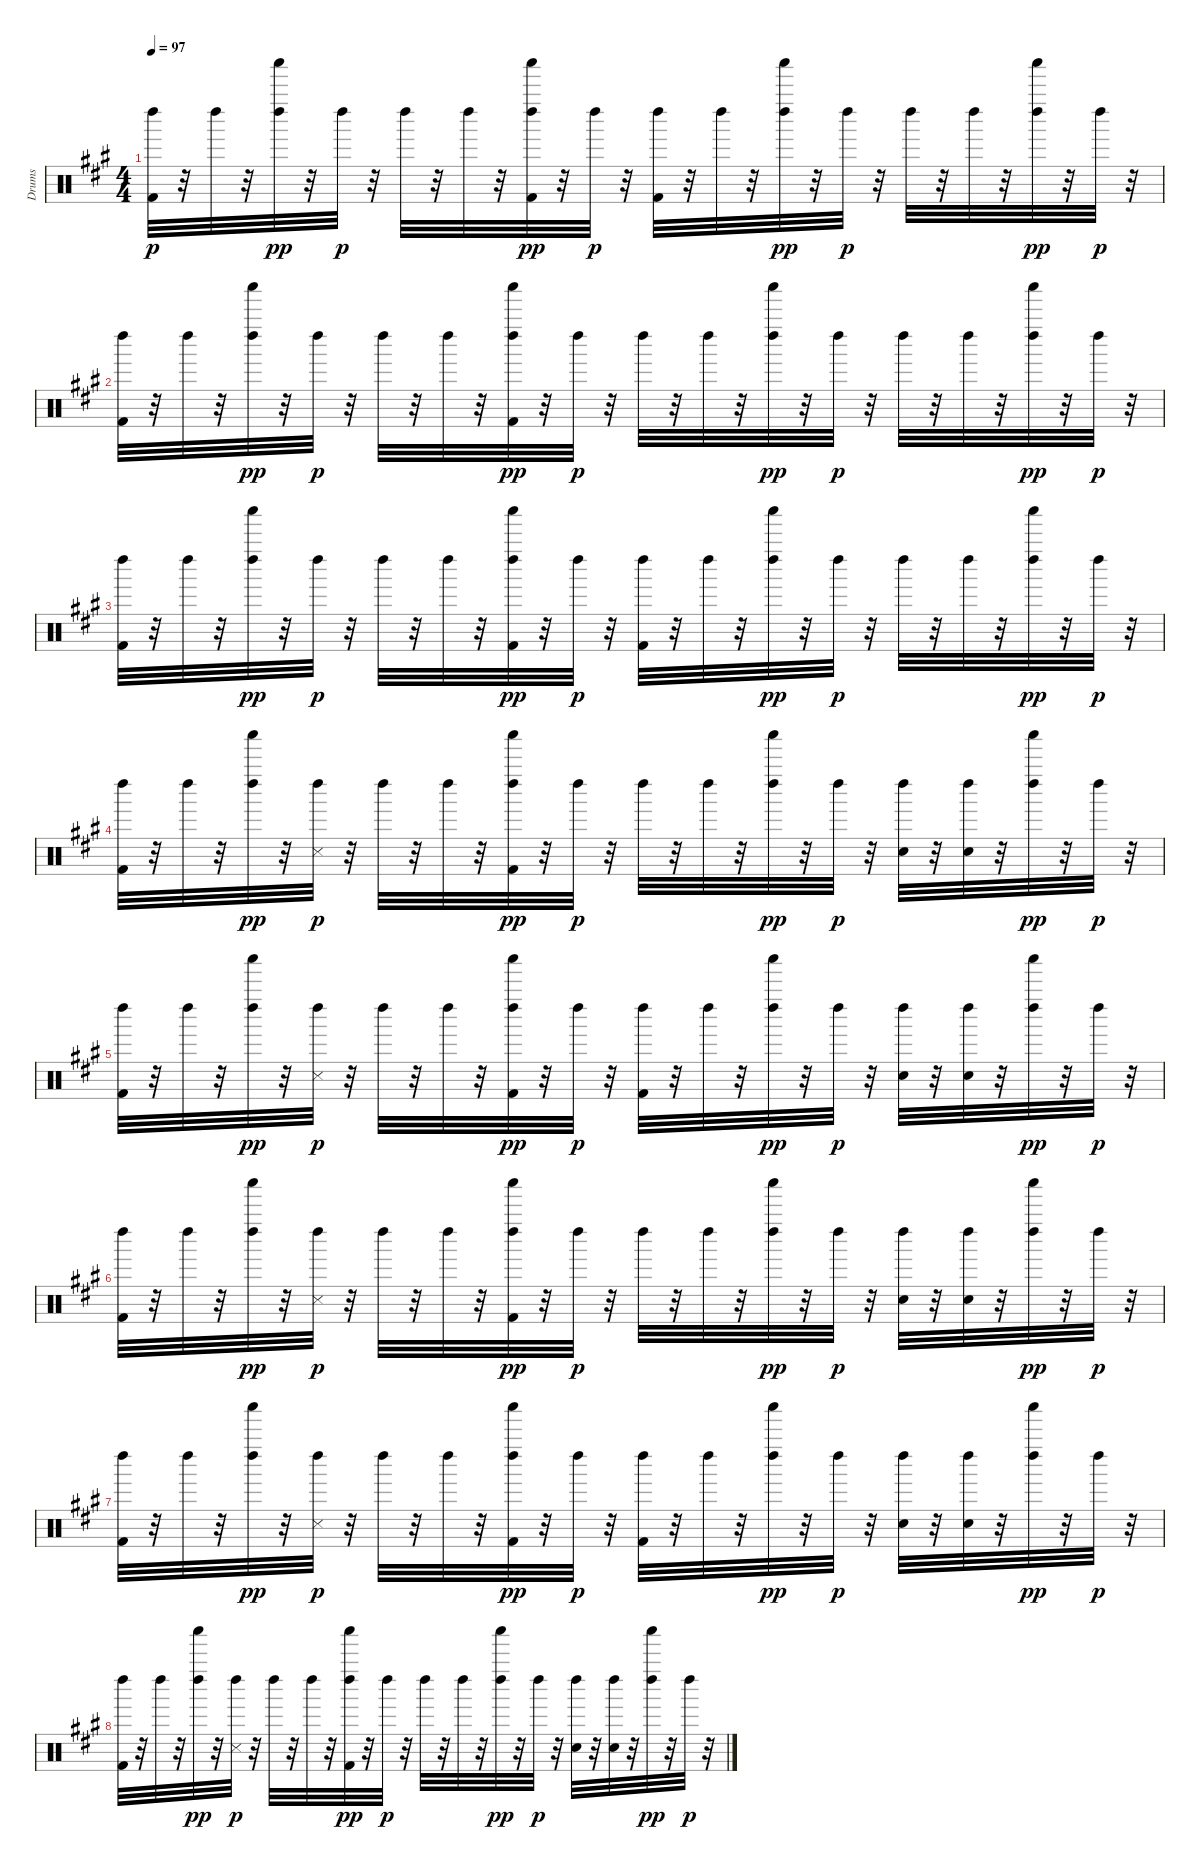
\track ("Drums" "Drums") {instrument percussion}
\staff {score}
\articulation defaults
\ts (4 4)
\tempo 97
\clef neutral
\ks a
("Kick (hit) 2" "Left Maraca (hit)").32{dy p} r.32 "Left Maraca (hit)".32 r.32 ("Shaker (hit)" "Left Maraca (hit)").32{dy pp} r.32 "Left Maraca (hit)".32{dy p} r.32 "Left Maraca (hit)".32 r.32 "Left Maraca (hit)".32 r.32 ("Kick (hit) 2" "Shaker (hit)" "Left Maraca (hit)").32{dy pp} r.32 "Left Maraca (hit)".32{dy p} r.32 ("Kick (hit) 2" "Left Maraca (hit)").32 r.32 "Left Maraca (hit)".32 r.32 ("Shaker (hit)" "Left Maraca (hit)").32{dy pp} r.32 "Left Maraca (hit)".32{dy p} r.32 "Left Maraca (hit)".32 r.32 "Left Maraca (hit)".32 r.32 ("Shaker (hit)" "Left Maraca (hit)").32{dy pp} r.32 "Left Maraca (hit)".32{dy p} r.32 |
("Kick (hit) 2" "Left Maraca (hit)").32 r.32 "Left Maraca (hit)".32 r.32 ("Shaker (hit)" "Left Maraca (hit)").32{dy pp} r.32 "Left Maraca (hit)".32{dy p} r.32 "Left Maraca (hit)".32 r.32 "Left Maraca (hit)".32 r.32 ("Kick (hit) 2" "Shaker (hit)" "Left Maraca (hit)").32{dy pp} r.32 "Left Maraca (hit)".32{dy p} r.32 "Left Maraca (hit)".32 r.32 "Left Maraca (hit)".32 r.32 ("Shaker (hit)" "Left Maraca (hit)").32{dy pp} r.32 "Left Maraca (hit)".32{dy p} r.32 "Left Maraca (hit)".32 r.32 "Left Maraca (hit)".32 r.32 ("Shaker (hit)" "Left Maraca (hit)").32{dy pp} r.32 "Left Maraca (hit)".32{dy p} r.32 |
("Kick (hit) 2" "Left Maraca (hit)").32 r.32 "Left Maraca (hit)".32 r.32 ("Shaker (hit)" "Left Maraca (hit)").32{dy pp} r.32 "Left Maraca (hit)".32{dy p} r.32 "Left Maraca (hit)".32 r.32 "Left Maraca (hit)".32 r.32 ("Kick (hit) 2" "Shaker (hit)" "Left Maraca (hit)").32{dy pp} r.32 "Left Maraca (hit)".32{dy p} r.32 ("Kick (hit) 2" "Left Maraca (hit)").32 r.32 "Left Maraca (hit)".32 r.32 ("Shaker (hit)" "Left Maraca (hit)").32{dy pp} r.32 "Left Maraca (hit)".32{dy p} r.32 "Left Maraca (hit)".32 r.32 "Left Maraca (hit)".32 r.32 ("Shaker (hit)" "Left Maraca (hit)").32{dy pp} r.32 "Left Maraca (hit)".32{dy p} r.32 |
("Left Maraca (hit)" "Kick (hit) 2").32 r.32 "Left Maraca (hit)".32 r.32 ("Shaker (hit)" "Left Maraca (hit)").32{dy pp} r.32 ("Snare (side stick) 3" "Left Maraca (hit)").32{dy p} r.32 "Left Maraca (hit)".32 r.32 "Left Maraca (hit)".32 r.32 ("Kick (hit) 2" "Shaker (hit)" "Left Maraca (hit)").32{dy pp} r.32 "Left Maraca (hit)".32{dy p} r.32 "Left Maraca (hit)".32 r.32 "Left Maraca (hit)".32 r.32 ("Shaker (hit)" "Left Maraca (hit)").32{dy pp} r.32 "Left Maraca (hit)".32{dy p} r.32 ("Hand Clap (hit)" "Left Maraca (hit)").32 r.32 ("Left Maraca (hit)" "Hand Clap (hit)").32 r.32 ("Shaker (hit)" "Left Maraca (hit)").32{dy pp} r.32 "Left Maraca (hit)".32{dy p} r.32 |
("Kick (hit) 2" "Left Maraca (hit)").32 r.32 "Left Maraca (hit)".32 r.32 ("Shaker (hit)" "Left Maraca (hit)").32{dy pp} r.32 ("Snare (side stick) 3" "Left Maraca (hit)").32{dy p} r.32 "Left Maraca (hit)".32 r.32 "Left Maraca (hit)".32 r.32 ("Kick (hit) 2" "Shaker (hit)" "Left Maraca (hit)").32{dy pp} r.32 "Left Maraca (hit)".32{dy p} r.32 ("Kick (hit) 2" "Left Maraca (hit)").32 r.32 "Left Maraca (hit)".32 r.32 ("Shaker (hit)" "Left Maraca (hit)").32{dy pp} r.32 "Left Maraca (hit)".32{dy p} r.32 ("Hand Clap (hit)" "Left Maraca (hit)").32 r.32 ("Left Maraca (hit)" "Hand Clap (hit)").32 r.32 ("Shaker (hit)" "Left Maraca (hit)").32{dy pp} r.32 "Left Maraca (hit)".32{dy p} r.32 |
("Kick (hit) 2" "Left Maraca (hit)").32 r.32 "Left Maraca (hit)".32 r.32 ("Shaker (hit)" "Left Maraca (hit)").32{dy pp} r.32 ("Snare (side stick) 3" "Left Maraca (hit)").32{dy p} r.32 "Left Maraca (hit)".32 r.32 "Left Maraca (hit)".32 r.32 ("Kick (hit) 2" "Shaker (hit)" "Left Maraca (hit)").32{dy pp} r.32 "Left Maraca (hit)".32{dy p} r.32 "Left Maraca (hit)".32 r.32 "Left Maraca (hit)".32 r.32 ("Shaker (hit)" "Left Maraca (hit)").32{dy pp} r.32 "Left Maraca (hit)".32{dy p} r.32 ("Hand Clap (hit)" "Left Maraca (hit)").32 r.32 ("Left Maraca (hit)" "Hand Clap (hit)").32 r.32 ("Shaker (hit)" "Left Maraca (hit)").32{dy pp} r.32 "Left Maraca (hit)".32{dy p} r.32 |
("Kick (hit) 2" "Left Maraca (hit)").32 r.32 "Left Maraca (hit)".32 r.32 ("Shaker (hit)" "Left Maraca (hit)").32{dy pp} r.32 ("Snare (side stick) 3" "Left Maraca (hit)").32{dy p} r.32 "Left Maraca (hit)".32 r.32 "Left Maraca (hit)".32 r.32 ("Kick (hit) 2" "Shaker (hit)" "Left Maraca (hit)").32{dy pp} r.32 "Left Maraca (hit)".32{dy p} r.32 ("Kick (hit) 2" "Left Maraca (hit)").32 r.32 "Left Maraca (hit)".32 r.32 ("Shaker (hit)" "Left Maraca (hit)").32{dy pp} r.32 "Left Maraca (hit)".32{dy p} r.32 ("Hand Clap (hit)" "Left Maraca (hit)").32 r.32 ("Left Maraca (hit)" "Hand Clap (hit)").32 r.32 ("Shaker (hit)" "Left Maraca (hit)").32{dy pp} r.32 "Left Maraca (hit)".32{dy p} r.32 |
("Kick (hit) 2" "Left Maraca (hit)").32 r.32 "Left Maraca (hit)".32 r.32 ("Shaker (hit)" "Left Maraca (hit)").32{dy pp} r.32 ("Snare (side stick) 3" "Left Maraca (hit)").32{dy p} r.32 "Left Maraca (hit)".32 r.32 "Left Maraca (hit)".32 r.32 ("Kick (hit) 2" "Shaker (hit)" "Left Maraca (hit)").32{dy pp} r.32 "Left Maraca (hit)".32{dy p} r.32 "Left Maraca (hit)".32 r.32 "Left Maraca (hit)".32 r.32 ("Shaker (hit)" "Left Maraca (hit)").32{dy pp} r.32 "Left Maraca (hit)".32{dy p} r.32 ("Hand Clap (hit)" "Left Maraca (hit)").32 r.32 ("Left Maraca (hit)" "Hand Clap (hit)").32 r.32 ("Shaker (hit)" "Left Maraca (hit)").32{dy pp} r.32 "Left Maraca (hit)".32{dy p} r.32
